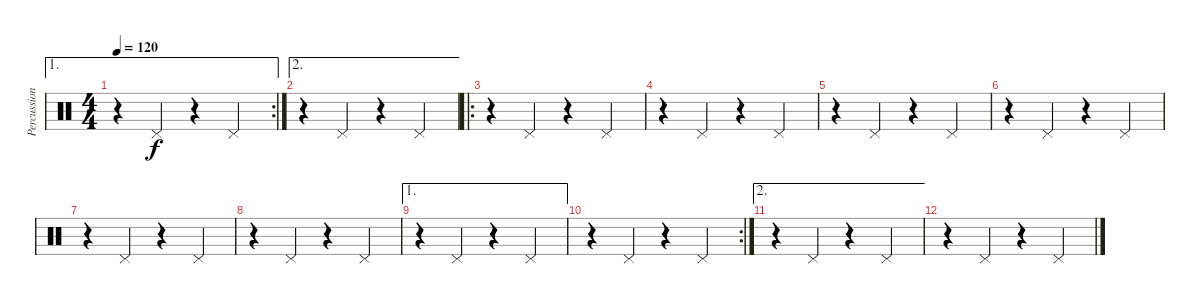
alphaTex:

\track ("Percussions" "Percussion") {instrument percussion}
\staff {score}
\articulation defaults
\ae 1
\rc 2
\ts (4 4)
\tempo 120
\clef neutral
\ks c
r.4{dy f} "Pedal Hi-Hat (hit)".4 r.4 "Pedal Hi-Hat (hit)".4 |
\ae 2
r.4 "Pedal Hi-Hat (hit)".4 r.4 "Pedal Hi-Hat (hit)".4 |
\ro
r.4 "Pedal Hi-Hat (hit)".4 r.4 "Pedal Hi-Hat (hit)".4 |
r.4 "Pedal Hi-Hat (hit)".4 r.4 "Pedal Hi-Hat (hit)".4 |
r.4 "Pedal Hi-Hat (hit)".4 r.4 "Pedal Hi-Hat (hit)".4 |
r.4 "Pedal Hi-Hat (hit)".4 r.4 "Pedal Hi-Hat (hit)".4 |
r.4 "Pedal Hi-Hat (hit)".4 r.4 "Pedal Hi-Hat (hit)".4 |
r.4 "Pedal Hi-Hat (hit)".4 r.4 "Pedal Hi-Hat (hit)".4 |
\ae 1
r.4 "Pedal Hi-Hat (hit)".4 r.4 "Pedal Hi-Hat (hit)".4 |
\rc 2
r.4 "Pedal Hi-Hat (hit)".4 r.4 "Pedal Hi-Hat (hit)".4 |
\ae 2
r.4 "Pedal Hi-Hat (hit)".4 r.4 "Pedal Hi-Hat (hit)".4 |
r.4 "Pedal Hi-Hat (hit)".4 r.4 "Pedal Hi-Hat (hit)".4
